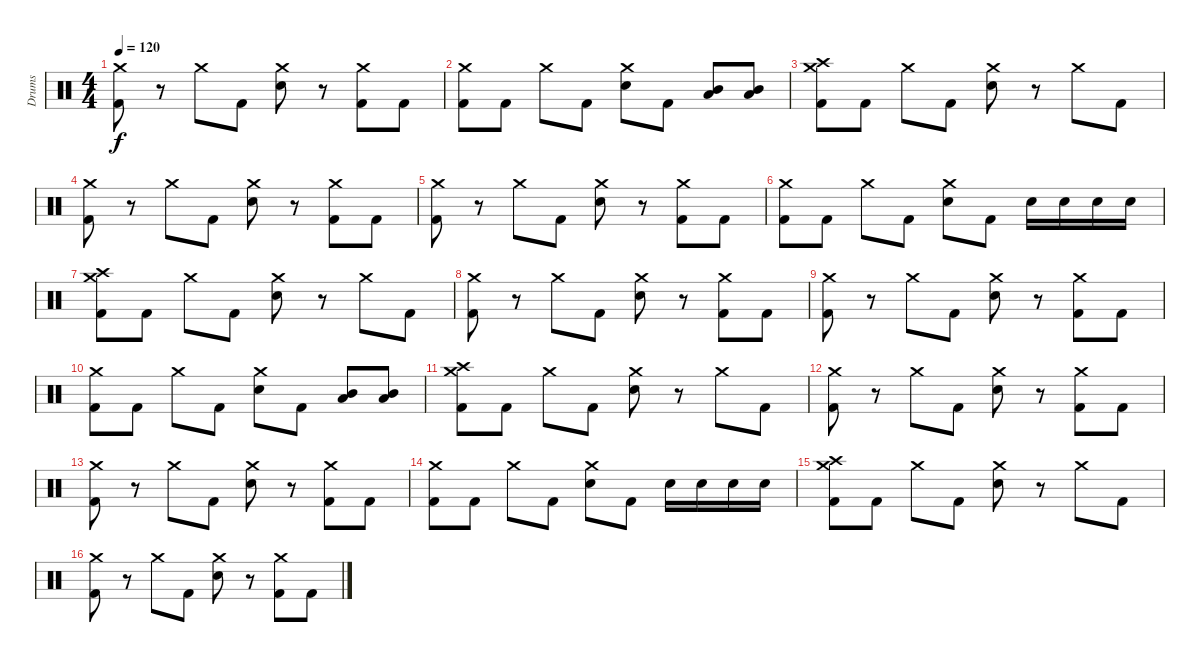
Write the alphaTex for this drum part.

\track ("Drums" "Drums") {instrument percussion}
\staff {score}
\articulation defaults
\ts (4 4)
\tempo 120
\clef neutral
\ks c
("Crash medium (hit)" "Kick (hit) 2").8{dy f} r.8 "Crash medium (hit)".8 "Kick (hit) 2".8 ("Crash medium (hit)" "Snare (hit) 2").8 r.8 ("Crash medium (hit)" "Kick (hit) 2").8 "Kick (hit) 2".8 |
("Crash medium (hit)" "Kick (hit) 2").8 "Kick (hit) 2".8 "Crash medium (hit)".8 "Kick (hit) 2".8 ("Crash medium (hit)" "Snare (hit) 2").8 "Kick (hit) 2".8 ("Mid Tom (hit)" "Low Tom (hit)").8 ("Mid Tom (hit)" "Low Tom (hit)").8 |
("Crash high (hit)" "Crash medium (hit)" "Kick (hit) 2").8 "Kick (hit) 2".8 "Crash medium (hit)".8 "Kick (hit) 2".8 ("Crash medium (hit)" "Snare (hit) 2").8 r.8 "Crash medium (hit)".8 "Kick (hit) 2".8 |
("Crash medium (hit)" "Kick (hit) 2").8 r.8 "Crash medium (hit)".8 "Kick (hit) 2".8 ("Crash medium (hit)" "Snare (hit) 2").8 r.8 ("Crash medium (hit)" "Kick (hit) 2").8 "Kick (hit) 2".8 |
("Crash medium (hit)" "Kick (hit) 2").8 r.8 "Crash medium (hit)".8 "Kick (hit) 2".8 ("Crash medium (hit)" "Snare (hit) 2").8 r.8 ("Crash medium (hit)" "Kick (hit) 2").8 "Kick (hit) 2".8 |
("Crash medium (hit)" "Kick (hit) 2").8 "Kick (hit) 2".8 "Crash medium (hit)".8 "Kick (hit) 2".8 ("Crash medium (hit)" "Snare (hit) 2").8 "Kick (hit) 2".8 "Snare (hit) 2".16 "Snare (hit) 2".16 "Snare (hit) 2".16 "Snare (hit) 2".16 |
("Crash high (hit)" "Crash medium (hit)" "Kick (hit) 2").8 "Kick (hit) 2".8 "Crash medium (hit)".8 "Kick (hit) 2".8 ("Crash medium (hit)" "Snare (hit) 2").8 r.8 "Crash medium (hit)".8 "Kick (hit) 2".8 |
("Crash medium (hit)" "Kick (hit) 2").8 r.8 "Crash medium (hit)".8 "Kick (hit) 2".8 ("Crash medium (hit)" "Snare (hit) 2").8 r.8 ("Crash medium (hit)" "Kick (hit) 2").8 "Kick (hit) 2".8 |
("Crash medium (hit)" "Kick (hit) 2").8 r.8 "Crash medium (hit)".8 "Kick (hit) 2".8 ("Crash medium (hit)" "Snare (hit) 2").8 r.8 ("Crash medium (hit)" "Kick (hit) 2").8 "Kick (hit) 2".8 |
("Crash medium (hit)" "Kick (hit) 2").8 "Kick (hit) 2".8 "Crash medium (hit)".8 "Kick (hit) 2".8 ("Crash medium (hit)" "Snare (hit) 2").8 "Kick (hit) 2".8 ("Mid Tom (hit)" "Low Tom (hit)").8 ("Mid Tom (hit)" "Low Tom (hit)").8 |
("Crash high (hit)" "Crash medium (hit)" "Kick (hit) 2").8 "Kick (hit) 2".8 "Crash medium (hit)".8 "Kick (hit) 2".8 ("Crash medium (hit)" "Snare (hit) 2").8 r.8 "Crash medium (hit)".8 "Kick (hit) 2".8 |
("Crash medium (hit)" "Kick (hit) 2").8 r.8 "Crash medium (hit)".8 "Kick (hit) 2".8 ("Crash medium (hit)" "Snare (hit) 2").8 r.8 ("Crash medium (hit)" "Kick (hit) 2").8 "Kick (hit) 2".8 |
("Crash medium (hit)" "Kick (hit) 2").8 r.8 "Crash medium (hit)".8 "Kick (hit) 2".8 ("Crash medium (hit)" "Snare (hit) 2").8 r.8 ("Crash medium (hit)" "Kick (hit) 2").8 "Kick (hit) 2".8 |
("Crash medium (hit)" "Kick (hit) 2").8 "Kick (hit) 2".8 "Crash medium (hit)".8 "Kick (hit) 2".8 ("Crash medium (hit)" "Snare (hit) 2").8 "Kick (hit) 2".8 "Snare (hit) 2".16 "Snare (hit) 2".16 "Snare (hit) 2".16 "Snare (hit) 2".16 |
("Crash high (hit)" "Crash medium (hit)" "Kick (hit) 2").8 "Kick (hit) 2".8 "Crash medium (hit)".8 "Kick (hit) 2".8 ("Crash medium (hit)" "Snare (hit) 2").8 r.8 "Crash medium (hit)".8 "Kick (hit) 2".8 |
("Crash medium (hit)" "Kick (hit) 2").8 r.8 "Crash medium (hit)".8 "Kick (hit) 2".8 ("Crash medium (hit)" "Snare (hit) 2").8 r.8 ("Crash medium (hit)" "Kick (hit) 2").8 "Kick (hit) 2".8
